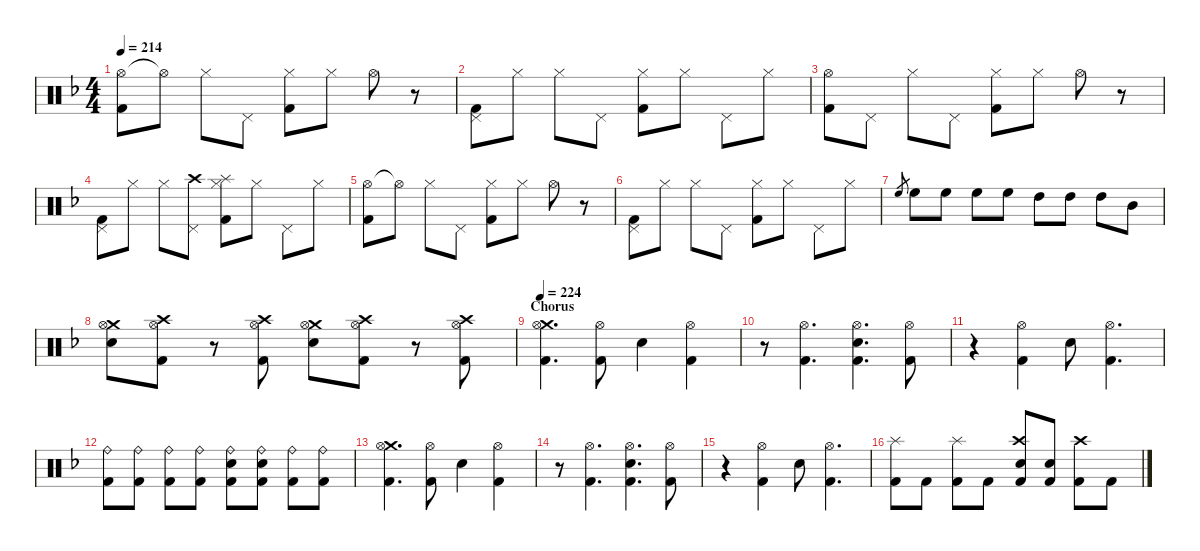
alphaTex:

\hideDynamics
\bracketExtendMode nobrackets
\singleTrackTrackNamePolicy hidden
\multiTrackTrackNamePolicy hidden
\firstSystemTrackNameMode fullname
\firstSystemTrackNameOrientation horizontal
\otherSystemsTrackNameOrientation horizontal
\track ("Drumkit" "Drums") {defaultSystemsLayout 4 instrument percussion}
\staff {score}
\articulation defaults
\ts (4 4)
\tempo 214
\clef neutral
\ks dminor
("Hi-Hat (open)"{acc forcenatural} "Kick (hit) 2"{acc forcenatural}).8{dy p beam Down} "Hi-Hat (open)"{t acc forcenatural}.8{beam Down} "Hi-Hat (closed)"{acc forcenatural}.8{dy mp beam Down} "Pedal Hi-Hat (hit)"{acc forcenatural}.8{beam Down} ("Hi-Hat (closed)"{acc forcenatural} "Kick (hit) 2"{acc forcenatural}).8{beam Down} "Hi-Hat (closed)"{acc forcenatural}.8{beam Down} "Hi-Hat (open)"{acc forcenatural}.8{beam Down} r.8{beam Down} |
("Pedal Hi-Hat (hit)"{acc forcenatural} "Kick (hit) 2"{acc forcenatural}).8{dy p beam Down} "Hi-Hat (closed)"{acc forcenatural}.8{beam Down} "Hi-Hat (closed)"{acc forcenatural}.8{dy mp beam Down} "Pedal Hi-Hat (hit)"{acc forcenatural}.8{dy mf beam Down} ("Hi-Hat (closed)"{acc forcenatural} "Kick (hit) 2"{acc forcenatural}).8{dy mp beam Down} "Hi-Hat (closed)"{acc forcenatural}.8{beam Down} "Pedal Hi-Hat (hit)"{acc forcenatural}.8{beam Down} "Hi-Hat (closed)"{acc forcenatural}.8{dy p beam Down} |
("Hi-Hat (open)"{acc forcenatural} "Kick (hit) 2"{acc forcenatural}).8{beam Down} "Pedal Hi-Hat (hit)"{acc forcenatural}.8{beam Down} "Hi-Hat (closed)"{acc forcenatural}.8{dy mp beam Down} "Pedal Hi-Hat (hit)"{acc forcenatural}.8{beam Down} ("Hi-Hat (closed)"{acc forcenatural} "Kick (hit) 2"{acc forcenatural}).8{beam Down} "Hi-Hat (closed)"{acc forcenatural}.8{beam Down} "Hi-Hat (open)"{acc forcenatural}.8{beam Down} r.8{beam Down} |
("Pedal Hi-Hat (hit)"{acc forcenatural} "Kick (hit) 2"{acc forcenatural}).8{dy p beam Down} "Hi-Hat (closed)"{acc forcenatural}.8{beam Down} "Hi-Hat (closed)"{acc forcenatural}.8{dy mp beam Down} ("Crash high (hit)"{acc forcenatural} "Pedal Hi-Hat (hit)"{acc forcenatural}).8{beam Down} ("Splash (hit)"{acc forcenatural} "Hi-Hat (closed)"{acc forcenatural} "Kick (hit) 2"{acc forcenatural}).8{beam Down} "Hi-Hat (closed)"{acc forcenatural}.8{beam Down} "Pedal Hi-Hat (hit)"{acc forcenatural}.8{beam Down} "Hi-Hat (closed)"{acc forcenatural}.8{dy p beam Down} |
("Hi-Hat (open)"{acc forcenatural} "Kick (hit) 2"{acc forcenatural}).8{beam Down} "Hi-Hat (open)"{t acc forcenatural}.8{beam Down} "Hi-Hat (closed)"{acc forcenatural}.8{dy mp beam Down} "Pedal Hi-Hat (hit)"{acc forcenatural}.8{beam Down} ("Hi-Hat (closed)"{acc forcenatural} "Kick (hit) 2"{acc forcenatural}).8{beam Down} "Hi-Hat (closed)"{acc forcenatural}.8{beam Down} "Hi-Hat (open)"{acc forcenatural}.8{beam Down} r.8{beam Down} |
("Pedal Hi-Hat (hit)"{acc forcenatural} "Kick (hit) 2"{acc forcenatural}).8{dy p beam Down} "Hi-Hat (closed)"{acc forcenatural}.8{beam Down} "Hi-Hat (closed)"{acc forcenatural}.8{dy mp beam Down} "Pedal Hi-Hat (hit)"{acc forcenatural}.8{dy mf beam Down} ("Hi-Hat (closed)"{acc forcenatural} "Kick (hit) 2"{acc forcenatural}).8{dy mp beam Down} "Hi-Hat (closed)"{acc forcenatural}.8{beam Down} "Pedal Hi-Hat (hit)"{acc forcenatural}.8{beam Down} "Hi-Hat (closed)"{acc forcenatural}.8{dy p beam Down} |
"High Floor Tom (hit)"{acc forcenatural}.8{gr dy mp beam Up} "High Floor Tom (hit)"{acc forcenatural}.8{dy f beam Down} "High Floor Tom (hit)"{acc forcenatural}.8{beam Down} "High Floor Tom (hit)"{acc forcenatural}.8{beam Down} "High Floor Tom (hit)"{acc forcenatural}.8{beam Down} "High Tom (hit)"{acc forcenatural}.8{beam Down} "High Tom (hit)"{acc forcenatural}.8{beam Down} "High Tom (hit)"{acc forcenatural}.8{beam Down} "Mid Tom (hit)"{acc forcenatural}.8{beam Down} |
("Crash medium (hit)"{acc forcenatural} "Hi-Hat (open)"{acc forcenatural} "Snare (hit) 2"{acc forcenatural}).8{beam Down} ("Crash high (hit)"{acc forcenatural} "Hi-Hat (open)"{acc forcenatural} "Kick (hit) 2"{acc forcenatural}).8{beam Down} r.8{beam Down} ("Crash high (hit)"{acc forcenatural} "Hi-Hat (open)"{acc forcenatural} "Kick (hit) 2"{acc forcenatural}).8{beam Down} ("Crash medium (hit)"{acc forcenatural} "Hi-Hat (open)"{acc forcenatural} "Snare (hit) 2"{acc forcenatural}).8{beam Down} ("Crash high (hit)"{acc forcenatural} "Hi-Hat (open)"{acc forcenatural} "Kick (hit) 2"{acc forcenatural}).8{beam Down} r.8{beam Down} ("Crash high (hit)"{acc forcenatural} "Hi-Hat (open)"{acc forcenatural} "Kick (hit) 2"{acc forcenatural}).8{beam Down} |
\section ("" "Chorus")
\tempo 224
("Crash medium (hit)"{acc forcenatural} "Hi-Hat (open)"{acc forcenatural} "Kick (hit) 2"{acc forcenatural}).4{d beam Down} ("Hi-Hat (open)"{acc forcenatural} "Kick (hit) 2"{acc forcenatural}).8{beam Down} "Snare (hit) 2"{acc forcenatural}.4{beam Down} ("Hi-Hat (open)"{acc forcenatural} "Kick (hit) 2"{acc forcenatural}).4{beam Down} |
r.8{beam Down} ("Hi-Hat (open)"{acc forcenatural} "Kick (hit) 2"{acc forcenatural}).4{d beam Down} ("Hi-Hat (open)"{acc forcenatural} "Snare (hit) 2"{acc forcenatural} "Kick (hit) 2"{acc forcenatural}).4{d beam Down} ("Hi-Hat (open)"{acc forcenatural} "Kick (hit) 2"{acc forcenatural}).8{beam Down} |
r.4{beam Down} ("Hi-Hat (open)"{acc forcenatural} "Kick (hit) 2"{acc forcenatural}).4{beam Down} "Snare (hit) 2"{acc forcenatural}.8{beam Down} ("Hi-Hat (open)"{acc forcenatural} "Kick (hit) 2"{acc forcenatural}).4{d beam Down} |
("Ride (bell)"{acc forcenatural} "Kick (hit) 2"{acc forcenatural}).8{beam Down} ("Ride (bell)"{acc forcenatural} "Kick (hit) 2"{acc forcenatural}).8{beam Down} ("Ride (bell)"{acc forcenatural} "Kick (hit) 2"{acc forcenatural}).8{dy mp beam Down} ("Ride (bell)"{acc forcenatural} "Kick (hit) 2"{acc forcenatural}).8{beam Down} ("Ride (bell)"{acc forcenatural} "Snare (hit) 2"{acc forcenatural} "Kick (hit) 2"{acc forcenatural}).8{dy f beam Down} ("Ride (bell)"{acc forcenatural} "Snare (hit) 2"{acc forcenatural} "Kick (hit) 2"{acc forcenatural}).8{beam Down} ("Ride (bell)"{acc forcenatural} "Kick (hit) 2"{acc forcenatural}).8{dy mp beam Down} ("Ride (bell)"{acc forcenatural} "Kick (hit) 2"{acc forcenatural}).8{beam Down} |
("Crash medium (hit)"{acc forcenatural} "Hi-Hat (open)"{acc forcenatural} "Kick (hit) 2"{acc forcenatural}).4{d dy f beam Down} ("Hi-Hat (open)"{acc forcenatural} "Kick (hit) 2"{acc forcenatural}).8{beam Down} "Snare (hit) 2"{acc forcenatural}.4{beam Down} ("Hi-Hat (open)"{acc forcenatural} "Kick (hit) 2"{acc forcenatural}).4{beam Down} |
r.8{beam Down} ("Hi-Hat (open)"{acc forcenatural} "Kick (hit) 2"{acc forcenatural}).4{d beam Down} ("Hi-Hat (open)"{acc forcenatural} "Snare (hit) 2"{acc forcenatural} "Kick (hit) 2"{acc forcenatural}).4{d beam Down} ("Hi-Hat (open)"{acc forcenatural} "Kick (hit) 2"{acc forcenatural}).8{beam Down} |
r.4{beam Down} ("Hi-Hat (open)"{acc forcenatural} "Kick (hit) 2"{acc forcenatural}).4{beam Down} "Snare (hit) 2"{acc forcenatural}.8{beam Down} ("Hi-Hat (open)"{acc forcenatural} "Kick (hit) 2"{acc forcenatural}).4{d beam Down} |
("Splash (hit)"{acc forcenatural} "Kick (hit) 2"{acc forcenatural}).8{beam Down} "Kick (hit) 2"{acc forcenatural}.8{beam Down} ("Splash (hit)"{acc forcenatural} "Kick (hit) 2"{acc forcenatural}).8{beam Down} "Kick (hit) 2"{acc forcenatural}.8{beam Down} ("Crash high (hit)"{acc forcenatural} "Snare (hit) 2"{acc forcenatural} "Kick (hit) 2"{acc forcenatural}).8{beam Up} ("Snare (hit) 2"{acc forcenatural} "Kick (hit) 2"{acc forcenatural}).8{beam Up} ("Crash high (hit)"{acc forcenatural} "Kick (hit) 2"{acc forcenatural}).8{beam Down} "Kick (hit) 2"{acc forcenatural}.8{beam Down}
